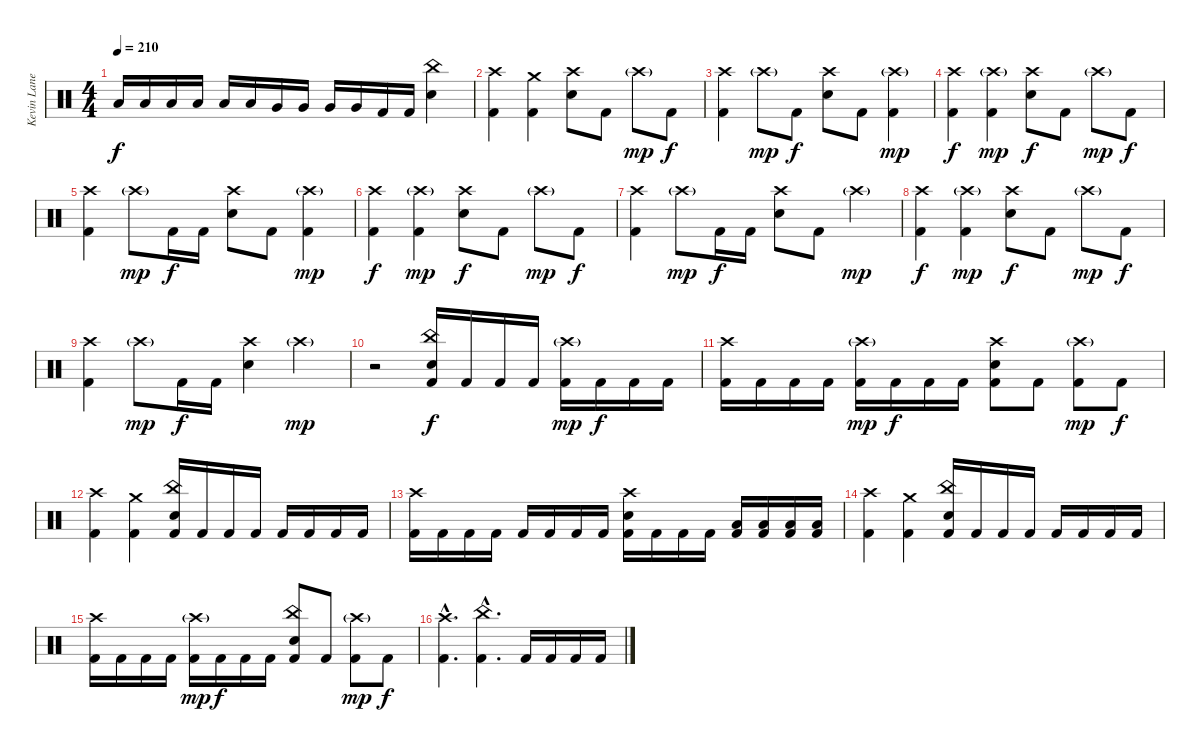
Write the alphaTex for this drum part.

\track ("Kevin Lane (Drums)" "Kevin Lane") {instrument percussion}
\staff {score}
\articulation defaults
\ts (4 4)
\tempo 210
\clef neutral
\ks c "Low Tom (hit)".16{dy f} "Low Tom (hit)".16 "Low Tom (hit)".16 "Low Tom (hit)".16 "Low Floor Tom (hit)".16 "Low Floor Tom (hit)".16 "Very Low Tom (hit)".16 "Very Low Tom (hit)".16 "Very Low Tom (hit)".16 "Very Low Tom (hit)".16 "Kick (hit) 2".16 "Kick (hit) 2".16
("China (hit)" "Snare (hit) 2").4 |
("Crash high (hit)" "Kick (hit) 2").4 ("Crash medium (hit)" "Kick (hit) 2").4 ("Crash high (hit)" "Snare (hit) 2").8 "Kick (hit) 2".8 "Crash high (hit)"{g}.8{dy mp} "Kick (hit) 2".8{dy f} |
("Crash high (hit)" "Kick (hit) 2").4 "Crash high (hit)"{g}.8{dy mp} "Kick (hit) 2".8{dy f} ("Crash high (hit)" "Snare (hit) 2").8 "Kick (hit) 2".8 ("Crash high (hit)"{g} "Kick (hit) 2").4{dy mp} |
("Crash high (hit)" "Kick (hit) 2").4{dy f} ("Crash high (hit)"{g} "Kick (hit) 2").4{dy mp} ("Crash high (hit)" "Snare (hit) 2").8{dy f} "Kick (hit) 2".8 "Crash high (hit)"{g}.8{dy mp} "Kick (hit) 2".8{dy f} |
("Crash high (hit)" "Kick (hit) 2").4 "Crash high (hit)"{g}.8{dy mp} "Kick (hit) 2".16{dy f} "Kick (hit) 2".16 ("Crash high (hit)" "Snare (hit) 2").8 "Kick (hit) 2".8 ("Crash high (hit)"{g} "Kick (hit) 2").4{dy mp} |
("Crash high (hit)" "Kick (hit) 2").4{dy f} ("Crash high (hit)"{g} "Kick (hit) 2").4{dy mp} ("Crash high (hit)" "Snare (hit) 2").8{dy f} "Kick (hit) 2".8 "Crash high (hit)"{g}.8{dy mp} "Kick (hit) 2".8{dy f} |
("Crash high (hit)" "Kick (hit) 2").4 "Crash high (hit)"{g}.8{dy mp} "Kick (hit) 2".16{dy f} "Kick (hit) 2".16 ("Crash high (hit)" "Snare (hit) 2").8 "Kick (hit) 2".8 "Crash high (hit)"{g}.4{dy mp} |
("Crash high (hit)" "Kick (hit) 2").4{dy f} ("Crash high (hit)"{g} "Kick (hit) 2").4{dy mp} ("Crash high (hit)" "Snare (hit) 2").8{dy f} "Kick (hit) 2".8 "Crash high (hit)"{g}.8{dy mp} "Kick (hit) 2".8{dy f} |
("Crash high (hit)" "Kick (hit) 2").4 "Crash high (hit)"{g}.8{dy mp} "Kick (hit) 2".16{dy f} "Kick (hit) 2".16 ("Crash high (hit)" "Snare (hit) 2").4 "Crash high (hit)"{g}.4{dy mp} |
r.2 ("China (hit)" "Snare (hit) 2" "Kick (hit) 2").16{dy f} "Kick (hit) 2".16 "Kick (hit) 2".16 "Kick (hit) 2".16 ("Crash high (hit)"{g} "Kick (hit) 2").16{dy mp} "Kick (hit) 2".16{dy f} "Kick (hit) 2".16 "Kick (hit) 2".16 |
("Crash high (hit)" "Kick (hit) 2").16 "Kick (hit) 2".16 "Kick (hit) 2".16 "Kick (hit) 2".16 ("Crash high (hit)"{g} "Kick (hit) 2").16{dy mp} "Kick (hit) 2".16{dy f} "Kick (hit) 2".16 "Kick (hit) 2".16 ("Crash high (hit)" "Snare (hit) 2" "Kick (hit) 2").8 "Kick (hit) 2".8 ("Crash high (hit)"{g} "Kick (hit) 2").8{dy mp} "Kick (hit) 2".8{dy f} |
("Crash high (hit)" "Kick (hit) 2").4 ("Crash medium (hit)" "Kick (hit) 2").4 ("China (hit)" "Snare (hit) 2" "Kick (hit) 2").16 "Kick (hit) 2".16 "Kick (hit) 2".16 "Kick (hit) 2".16 "Kick (hit) 2".16 "Kick (hit) 2".16 "Kick (hit) 2".16 "Kick (hit) 2".16 |
("Crash high (hit)" "Kick (hit) 2").16 "Kick (hit) 2".16 "Kick (hit) 2".16 "Kick (hit) 2".16 "Kick (hit) 2".16 "Kick (hit) 2".16 "Kick (hit) 2".16 "Kick (hit) 2".16 ("Crash high (hit)" "Snare (hit) 2" "Kick (hit) 2").16 "Kick (hit) 2".16 "Kick (hit) 2".16 "Kick (hit) 2".16 ("Low Tom (hit)" "Kick (hit) 2").16 ("Low Tom (hit)" "Kick (hit) 2").16 ("Low Floor Tom (hit)" "Kick (hit) 2").16 ("Low Floor Tom (hit)" "Kick (hit) 2").16 |
("Crash high (hit)" "Kick (hit) 2").4 ("Crash medium (hit)" "Kick (hit) 2").4 ("China (hit)" "Snare (hit) 2" "Kick (hit) 2").16 "Kick (hit) 2".16 "Kick (hit) 2".16 "Kick (hit) 2".16 "Kick (hit) 2".16 "Kick (hit) 2".16 "Kick (hit) 2".16 "Kick (hit) 2".16 |
("Crash high (hit)" "Kick (hit) 2").16 "Kick (hit) 2".16 "Kick (hit) 2".16 "Kick (hit) 2".16 ("Crash high (hit)"{g} "Kick (hit) 2").16{dy mp} "Kick (hit) 2".16{dy f} "Kick (hit) 2".16 "Kick (hit) 2".16 ("China (hit)" "Snare (hit) 2" "Kick (hit) 2").8 "Kick (hit) 2".8 ("Crash high (hit)"{g} "Kick (hit) 2").8{dy mp} "Kick (hit) 2".8{dy f} |
("Crash high (hit)"{hac} "Kick (hit) 2"{hac}).4{d} ("China (hit)"{hac} "Kick (hit) 2"{hac}).4{d} "Kick (hit) 2".16 "Kick (hit) 2".16 "Kick (hit) 2".16 "Kick (hit) 2".16
